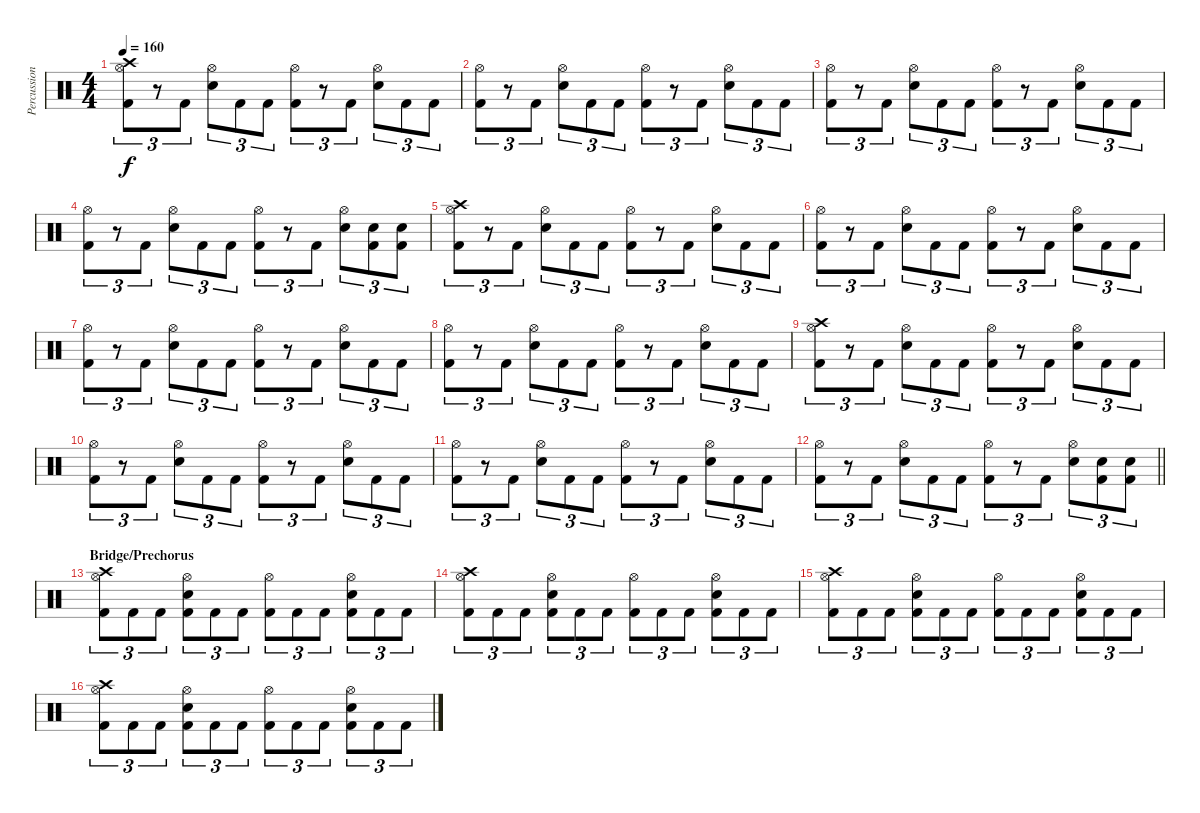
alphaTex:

\track ("Percussion" "Percussion") {instrument percussion}
\staff {score}
\articulation defaults
\ts (4 4)
\tempo 160
\clef neutral
\ks c
("Crash high (hit)" "Hi-Hat (open)" "Kick (hit) 2").8{tu (3 2) dy f} r.8{tu (3 2)} "Kick (hit) 2".8{tu (3 2)} ("Hi-Hat (open)" "Snare (hit) 2").8{tu (3 2)} "Kick (hit) 2".8{tu (3 2)} "Kick (hit) 2".8{tu (3 2)} ("Hi-Hat (open)" "Kick (hit) 2").8{tu (3 2)} r.8{tu (3 2)} "Kick (hit) 2".8{tu (3 2)} ("Hi-Hat (open)" "Snare (hit) 2").8{tu (3 2)} "Kick (hit) 2".8{tu (3 2)} "Kick (hit) 2".8{tu (3 2)} |
("Hi-Hat (open)" "Kick (hit) 2").8{tu (3 2)} r.8{tu (3 2)} "Kick (hit) 2".8{tu (3 2)} ("Hi-Hat (open)" "Snare (hit) 2").8{tu (3 2)} "Kick (hit) 2".8{tu (3 2)} "Kick (hit) 2".8{tu (3 2)} ("Hi-Hat (open)" "Kick (hit) 2").8{tu (3 2)} r.8{tu (3 2)} "Kick (hit) 2".8{tu (3 2)} ("Hi-Hat (open)" "Snare (hit) 2").8{tu (3 2)} "Kick (hit) 2".8{tu (3 2)} "Kick (hit) 2".8{tu (3 2)} |
("Hi-Hat (open)" "Kick (hit) 2").8{tu (3 2)} r.8{tu (3 2)} "Kick (hit) 2".8{tu (3 2)} ("Hi-Hat (open)" "Snare (hit) 2").8{tu (3 2)} "Kick (hit) 2".8{tu (3 2)} "Kick (hit) 2".8{tu (3 2)} ("Hi-Hat (open)" "Kick (hit) 2").8{tu (3 2)} r.8{tu (3 2)} "Kick (hit) 2".8{tu (3 2)} ("Hi-Hat (open)" "Snare (hit) 2").8{tu (3 2)} "Kick (hit) 2".8{tu (3 2)} "Kick (hit) 2".8{tu (3 2)} |
("Hi-Hat (open)" "Kick (hit) 2").8{tu (3 2)} r.8{tu (3 2)} "Kick (hit) 2".8{tu (3 2)} ("Hi-Hat (open)" "Snare (hit) 2").8{tu (3 2)} "Kick (hit) 2".8{tu (3 2)} "Kick (hit) 2".8{tu (3 2)} ("Hi-Hat (open)" "Kick (hit) 2").8{tu (3 2)} r.8{tu (3 2)} "Kick (hit) 2".8{tu (3 2)} ("Hi-Hat (open)" "Snare (hit) 2").8{tu (3 2)} ("Snare (hit) 2" "Kick (hit) 2").8{tu (3 2)} ("Snare (hit) 2" "Kick (hit) 2").8{tu (3 2)} |
("Crash high (hit)" "Hi-Hat (open)" "Kick (hit) 2").8{tu (3 2)} r.8{tu (3 2)} "Kick (hit) 2".8{tu (3 2)} ("Hi-Hat (open)" "Snare (hit) 2").8{tu (3 2)} "Kick (hit) 2".8{tu (3 2)} "Kick (hit) 2".8{tu (3 2)} ("Hi-Hat (open)" "Kick (hit) 2").8{tu (3 2)} r.8{tu (3 2)} "Kick (hit) 2".8{tu (3 2)} ("Hi-Hat (open)" "Snare (hit) 2").8{tu (3 2)} "Kick (hit) 2".8{tu (3 2)} "Kick (hit) 2".8{tu (3 2)} |
("Hi-Hat (open)" "Kick (hit) 2").8{tu (3 2)} r.8{tu (3 2)} "Kick (hit) 2".8{tu (3 2)} ("Hi-Hat (open)" "Snare (hit) 2").8{tu (3 2)} "Kick (hit) 2".8{tu (3 2)} "Kick (hit) 2".8{tu (3 2)} ("Hi-Hat (open)" "Kick (hit) 2").8{tu (3 2)} r.8{tu (3 2)} "Kick (hit) 2".8{tu (3 2)} ("Hi-Hat (open)" "Snare (hit) 2").8{tu (3 2)} "Kick (hit) 2".8{tu (3 2)} "Kick (hit) 2".8{tu (3 2)} |
("Hi-Hat (open)" "Kick (hit) 2").8{tu (3 2)} r.8{tu (3 2)} "Kick (hit) 2".8{tu (3 2)} ("Hi-Hat (open)" "Snare (hit) 2").8{tu (3 2)} "Kick (hit) 2".8{tu (3 2)} "Kick (hit) 2".8{tu (3 2)} ("Hi-Hat (open)" "Kick (hit) 2").8{tu (3 2)} r.8{tu (3 2)} "Kick (hit) 2".8{tu (3 2)} ("Hi-Hat (open)" "Snare (hit) 2").8{tu (3 2)} "Kick (hit) 2".8{tu (3 2)} "Kick (hit) 2".8{tu (3 2)} |
("Hi-Hat (open)" "Kick (hit) 2").8{tu (3 2)} r.8{tu (3 2)} "Kick (hit) 2".8{tu (3 2)} ("Hi-Hat (open)" "Snare (hit) 2").8{tu (3 2)} "Kick (hit) 2".8{tu (3 2)} "Kick (hit) 2".8{tu (3 2)} ("Hi-Hat (open)" "Kick (hit) 2").8{tu (3 2)} r.8{tu (3 2)} "Kick (hit) 2".8{tu (3 2)} ("Hi-Hat (open)" "Snare (hit) 2").8{tu (3 2)} "Kick (hit) 2".8{tu (3 2)} "Kick (hit) 2".8{tu (3 2)} |
("Crash high (hit)" "Hi-Hat (open)" "Kick (hit) 2").8{tu (3 2)} r.8{tu (3 2)} "Kick (hit) 2".8{tu (3 2)} ("Hi-Hat (open)" "Snare (hit) 2").8{tu (3 2)} "Kick (hit) 2".8{tu (3 2)} "Kick (hit) 2".8{tu (3 2)} ("Hi-Hat (open)" "Kick (hit) 2").8{tu (3 2)} r.8{tu (3 2)} "Kick (hit) 2".8{tu (3 2)} ("Hi-Hat (open)" "Snare (hit) 2").8{tu (3 2)} "Kick (hit) 2".8{tu (3 2)} "Kick (hit) 2".8{tu (3 2)} |
("Hi-Hat (open)" "Kick (hit) 2").8{tu (3 2)} r.8{tu (3 2)} "Kick (hit) 2".8{tu (3 2)} ("Hi-Hat (open)" "Snare (hit) 2").8{tu (3 2)} "Kick (hit) 2".8{tu (3 2)} "Kick (hit) 2".8{tu (3 2)} ("Hi-Hat (open)" "Kick (hit) 2").8{tu (3 2)} r.8{tu (3 2)} "Kick (hit) 2".8{tu (3 2)} ("Hi-Hat (open)" "Snare (hit) 2").8{tu (3 2)} "Kick (hit) 2".8{tu (3 2)} "Kick (hit) 2".8{tu (3 2)} |
("Hi-Hat (open)" "Kick (hit) 2").8{tu (3 2)} r.8{tu (3 2)} "Kick (hit) 2".8{tu (3 2)} ("Hi-Hat (open)" "Snare (hit) 2").8{tu (3 2)} "Kick (hit) 2".8{tu (3 2)} "Kick (hit) 2".8{tu (3 2)} ("Hi-Hat (open)" "Kick (hit) 2").8{tu (3 2)} r.8{tu (3 2)} "Kick (hit) 2".8{tu (3 2)} ("Hi-Hat (open)" "Snare (hit) 2").8{tu (3 2)} "Kick (hit) 2".8{tu (3 2)} "Kick (hit) 2".8{tu (3 2)} |
\barLineRight lightlight
("Hi-Hat (open)" "Kick (hit) 2").8{tu (3 2)} r.8{tu (3 2)} "Kick (hit) 2".8{tu (3 2)} ("Hi-Hat (open)" "Snare (hit) 2").8{tu (3 2)} "Kick (hit) 2".8{tu (3 2)} "Kick (hit) 2".8{tu (3 2)} ("Hi-Hat (open)" "Kick (hit) 2").8{tu (3 2)} r.8{tu (3 2)} "Kick (hit) 2".8{tu (3 2)} ("Hi-Hat (open)" "Snare (hit) 2").8{tu (3 2)} ("Snare (hit) 2" "Kick (hit) 2").8{tu (3 2)} ("Snare (hit) 2" "Kick (hit) 2").8{tu (3 2)} |
\section ("" "Bridge/Prechorus")
("Crash high (hit)" "Hi-Hat (open)" "Kick (hit) 2").8{tu (3 2)} "Kick (hit) 2".8{tu (3 2)} "Kick (hit) 2".8{tu (3 2)} ("Hi-Hat (open)" "Snare (hit) 2" "Kick (hit) 2").8{tu (3 2)} "Kick (hit) 2".8{tu (3 2)} "Kick (hit) 2".8{tu (3 2)} ("Hi-Hat (open)" "Kick (hit) 2").8{tu (3 2)} "Kick (hit) 2".8{tu (3 2)} "Kick (hit) 2".8{tu (3 2)} ("Hi-Hat (open)" "Snare (hit) 2" "Kick (hit) 2").8{tu (3 2)} "Kick (hit) 2".8{tu (3 2)} "Kick (hit) 2".8{tu (3 2)} |
("Crash high (hit)" "Hi-Hat (open)" "Kick (hit) 2").8{tu (3 2)} "Kick (hit) 2".8{tu (3 2)} "Kick (hit) 2".8{tu (3 2)} ("Hi-Hat (open)" "Snare (hit) 2" "Kick (hit) 2").8{tu (3 2)} "Kick (hit) 2".8{tu (3 2)} "Kick (hit) 2".8{tu (3 2)} ("Hi-Hat (open)" "Kick (hit) 2").8{tu (3 2)} "Kick (hit) 2".8{tu (3 2)} "Kick (hit) 2".8{tu (3 2)} ("Hi-Hat (open)" "Snare (hit) 2" "Kick (hit) 2").8{tu (3 2)} "Kick (hit) 2".8{tu (3 2)} "Kick (hit) 2".8{tu (3 2)} |
("Crash high (hit)" "Hi-Hat (open)" "Kick (hit) 2").8{tu (3 2)} "Kick (hit) 2".8{tu (3 2)} "Kick (hit) 2".8{tu (3 2)} ("Hi-Hat (open)" "Snare (hit) 2" "Kick (hit) 2").8{tu (3 2)} "Kick (hit) 2".8{tu (3 2)} "Kick (hit) 2".8{tu (3 2)} ("Hi-Hat (open)" "Kick (hit) 2").8{tu (3 2)} "Kick (hit) 2".8{tu (3 2)} "Kick (hit) 2".8{tu (3 2)} ("Hi-Hat (open)" "Snare (hit) 2" "Kick (hit) 2").8{tu (3 2)} "Kick (hit) 2".8{tu (3 2)} "Kick (hit) 2".8{tu (3 2)} |
("Crash high (hit)" "Hi-Hat (open)" "Kick (hit) 2").8{tu (3 2)} "Kick (hit) 2".8{tu (3 2)} "Kick (hit) 2".8{tu (3 2)} ("Hi-Hat (open)" "Snare (hit) 2" "Kick (hit) 2").8{tu (3 2)} "Kick (hit) 2".8{tu (3 2)} "Kick (hit) 2".8{tu (3 2)} ("Hi-Hat (open)" "Kick (hit) 2").8{tu (3 2)} "Kick (hit) 2".8{tu (3 2)} "Kick (hit) 2".8{tu (3 2)} ("Hi-Hat (open)" "Snare (hit) 2" "Kick (hit) 2").8{tu (3 2)} "Kick (hit) 2".8{tu (3 2)} "Kick (hit) 2".8{tu (3 2)}
